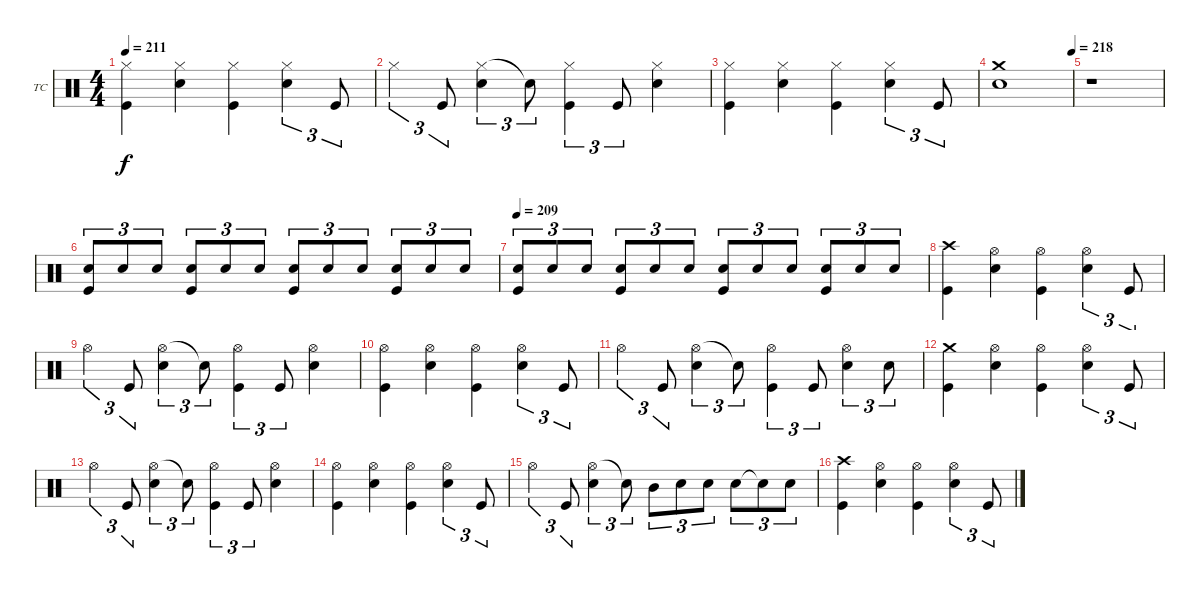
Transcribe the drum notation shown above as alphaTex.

\defaultSystemsLayout 4
\bracketExtendMode groupsimilarinstruments
\firstSystemTrackNameOrientation horizontal
\otherSystemsTrackNameOrientation horizontal
\track ("Drums - Tre Cool" "TC") {instrument percussion}
\staff {score}
\articulation defaults
\ts (4 4)
\tempo 211
\clef neutral
\scale
0.333333
\ks c
("Hi-Hat (closed)" "Kick (hit)").4{dy f} ("Hi-Hat (closed)" "Snare (hit) 2").4 ("Hi-Hat (closed)" "Kick (hit)").4 ("Hi-Hat (closed)" "Snare (hit) 2").4{tu (3 2)} "Kick (hit)".8{tu (3 2)} |
\scale
0.333333 "Hi-Hat (closed)".4{tu (3 2)} "Kick (hit)".8{tu (3 2)} ("Hi-Hat (closed)" "Snare (hit) 2").4{tu (3 2)} "Snare (hit) 2"{t}.8{tu (3 2)} ("Hi-Hat (closed)" "Kick (hit)").4{tu (3 2)} "Kick (hit)".8{tu (3 2)} ("Hi-Hat (closed)" "Snare (hit) 2").4 |
\scale
0.333333 ("Hi-Hat (closed)" "Kick (hit)").4 ("Hi-Hat (closed)" "Snare (hit) 2").4 ("Hi-Hat (closed)" "Kick (hit)").4 ("Hi-Hat (closed)" "Snare (hit) 2").4{tu (3 2)} "Kick (hit)".8{tu (3 2)} |
\tempo (218 1)
\scale
0.333333 ("Crash medium (hit)" "Snare (hit) 2").1 |
r.1 |
("Snare (hit) 2" "Kick (hit)").8{tu (3 2)} "Snare (hit) 2".8{tu (3 2)} "Snare (hit) 2".8{tu (3 2)} ("Snare (hit) 2" "Kick (hit)").8{tu (3 2)} "Snare (hit) 2".8{tu (3 2)} "Snare (hit) 2".8{tu (3 2)} ("Snare (hit) 2" "Kick (hit)").8{tu (3 2)} "Snare (hit) 2".8{tu (3 2)} "Snare (hit) 2".8{tu (3 2)} ("Snare (hit) 2" "Kick (hit)").8{tu (3 2)} "Snare (hit) 2".8{tu (3 2)} "Snare (hit) 2".8{tu (3 2)} |
\tempo 209
("Snare (hit) 2" "Kick (hit)").8{tu (3 2)} "Snare (hit) 2".8{tu (3 2)} "Snare (hit) 2".8{tu (3 2)} ("Snare (hit) 2" "Kick (hit)").8{tu (3 2)} "Snare (hit) 2".8{tu (3 2)} "Snare (hit) 2".8{tu (3 2)} ("Snare (hit) 2" "Kick (hit)").8{tu (3 2)} "Snare (hit) 2".8{tu (3 2)} "Snare (hit) 2".8{tu (3 2)} ("Snare (hit) 2" "Kick (hit)").8{tu (3 2)} "Snare (hit) 2".8{tu (3 2)} "Snare (hit) 2".8{tu (3 2)} |
("Crash high (hit)" "Kick (hit)").4 ("Hi-Hat (open)" "Snare (hit) 2").4 ("Hi-Hat (open)" "Kick (hit)").4 ("Hi-Hat (open)" "Snare (hit) 2").4{tu (3 2)} "Kick (hit)".8{tu (3 2)} |
"Hi-Hat (open)".4{tu (3 2)} "Kick (hit)".8{tu (3 2)} ("Hi-Hat (open)" "Snare (hit) 2").4{tu (3 2)} "Snare (hit) 2"{t}.8{tu (3 2)} ("Hi-Hat (open)" "Kick (hit)").4{tu (3 2)} "Kick (hit)".8{tu (3 2)} ("Hi-Hat (open)" "Snare (hit) 2").4 |
("Hi-Hat (open)" "Kick (hit)").4 ("Hi-Hat (open)" "Snare (hit) 2").4 ("Hi-Hat (open)" "Kick (hit)").4 ("Hi-Hat (open)" "Snare (hit) 2").4{tu (3 2)} "Kick (hit)".8{tu (3 2)} |
"Hi-Hat (open)".4{tu (3 2)} "Kick (hit)".8{tu (3 2)} ("Hi-Hat (open)" "Snare (hit) 2").4{tu (3 2)} "Snare (hit) 2"{t}.8{tu (3 2)} ("Hi-Hat (open)" "Kick (hit)").4{tu (3 2)} "Kick (hit)".8{tu (3 2)} ("Hi-Hat (open)" "Snare (hit) 2").4{tu (3 2)} "Snare (hit) 2".8{tu (3 2)} |
("Crash medium (hit)" "Kick (hit)").4 ("Hi-Hat (open)" "Snare (hit) 2").4 ("Hi-Hat (open)" "Kick (hit)").4 ("Hi-Hat (open)" "Snare (hit) 2").4{tu (3 2)} "Kick (hit)".8{tu (3 2)} |
"Hi-Hat (open)".4{tu (3 2)} "Kick (hit)".8{tu (3 2)} ("Hi-Hat (open)" "Snare (hit) 2").4{tu (3 2)} "Snare (hit) 2"{t}.8{tu (3 2)} ("Hi-Hat (open)" "Kick (hit)").4{tu (3 2)} "Kick (hit)".8{tu (3 2)} ("Hi-Hat (open)" "Snare (hit) 2").4 |
("Hi-Hat (open)" "Kick (hit)").4 ("Hi-Hat (open)" "Snare (hit) 2").4 ("Hi-Hat (open)" "Kick (hit)").4 ("Hi-Hat (open)" "Snare (hit) 2").4{tu (3 2)} "Kick (hit)".8{tu (3 2)} |
"Hi-Hat (open)".4{tu (3 2)} "Kick (hit)".8{tu (3 2)} ("Hi-Hat (open)" "Snare (hit) 2").4{tu (3 2)} "Snare (hit) 2"{t}.8{tu (3 2)} "Mid Tom (hit)".8{tu (3 2)} "Snare (hit) 2".8{tu (3 2)} "Snare (hit) 2".8{tu (3 2)} "Snare (hit) 2".8{tu (3 2)} "Snare (hit) 2"{t}.8{tu (3 2)} "Snare (hit) 2".8{tu (3 2)} |
("Crash high (hit)" "Kick (hit)").4 ("Hi-Hat (open)" "Snare (hit) 2").4 ("Hi-Hat (open)" "Kick (hit)").4 ("Hi-Hat (open)" "Snare (hit) 2").4{tu (3 2)} "Kick (hit)".8{tu (3 2)}
